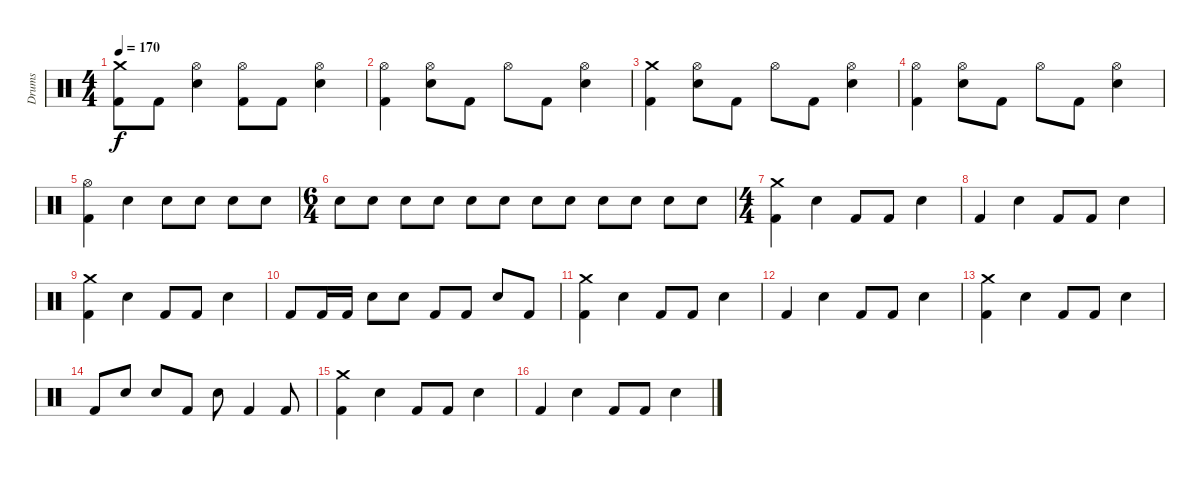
\track ("Drums" "Drums") {instrument percussion}
\staff {score}
\articulation defaults
\ts (4 4)
\tempo 170
\clef neutral
\ks c
("Crash medium (hit)" "Kick (hit) 2").8{dy f} "Kick (hit) 2".8 ("Snare (hit) 2" "Hi-Hat (open)").4 ("Hi-Hat (open)" "Kick (hit) 2").8 "Kick (hit) 2".8 ("Snare (hit) 2" "Hi-Hat (open)").4 |
("Hi-Hat (open)" "Kick (hit) 2").4 ("Snare (hit) 2" "Hi-Hat (open)").8 "Kick (hit) 2".8 "Hi-Hat (open)".8 "Kick (hit) 2".8 ("Snare (hit) 2" "Hi-Hat (open)").4 |
("Crash medium (hit)" "Kick (hit) 2").4 ("Snare (hit) 2" "Hi-Hat (open)").8 "Kick (hit) 2".8 "Hi-Hat (open)".8 "Kick (hit) 2".8 ("Snare (hit) 2" "Hi-Hat (open)").4 |
("Hi-Hat (open)" "Kick (hit) 2").4 ("Snare (hit) 2" "Hi-Hat (open)").8 "Kick (hit) 2".8 "Hi-Hat (open)".8 "Kick (hit) 2".8 ("Snare (hit) 2" "Hi-Hat (open)").4 |
("Hi-Hat (open)" "Kick (hit) 2").4 "Snare (hit) 2".4 "Snare (hit) 2".8 "Snare (hit) 2".8 "Snare (hit) 2".8 "Snare (hit) 2".8 |
\ts (6 4)
"Snare (hit) 2".8 "Snare (hit) 2".8 "Snare (hit) 2".8 "Snare (hit) 2".8 "Snare (hit) 2".8 "Snare (hit) 2".8 "Snare (hit) 2".8 "Snare (hit) 2".8 "Snare (hit) 2".8 "Snare (hit) 2".8 "Snare (hit) 2".8 "Snare (hit) 2".8 |
\ts (4 4)
("Crash medium (hit)" "Kick (hit) 2").4 "Snare (hit) 2".4 "Kick (hit) 2".8 "Kick (hit) 2".8 "Snare (hit) 2".4 |
"Kick (hit) 2".4 "Snare (hit) 2".4 "Kick (hit) 2".8 "Kick (hit) 2".8 "Snare (hit) 2".4 |
("Crash medium (hit)" "Kick (hit) 2").4 "Snare (hit) 2".4 "Kick (hit) 2".8 "Kick (hit) 2".8 "Snare (hit) 2".4 |
"Kick (hit) 2".8 "Kick (hit) 2".16 "Kick (hit) 2".16 "Snare (hit) 2".8 "Snare (hit) 2".8 "Kick (hit) 2".8 "Kick (hit) 2".8 "Snare (hit) 2".8 "Kick (hit) 2".8 |
("Crash medium (hit)" "Kick (hit) 2").4 "Snare (hit) 2".4 "Kick (hit) 2".8 "Kick (hit) 2".8 "Snare (hit) 2".4 |
"Kick (hit) 2".4 "Snare (hit) 2".4 "Kick (hit) 2".8 "Kick (hit) 2".8 "Snare (hit) 2".4 |
("Crash medium (hit)" "Kick (hit) 2").4 "Snare (hit) 2".4 "Kick (hit) 2".8 "Kick (hit) 2".8 "Snare (hit) 2".4 |
"Kick (hit) 2".8 "Snare (hit) 2".8 "Snare (hit) 2".8 "Kick (hit) 2".8 "Snare (hit) 2".8 "Kick (hit) 2".4 "Kick (hit) 2".8 |
("Crash medium (hit)" "Kick (hit) 2").4 "Snare (hit) 2".4 "Kick (hit) 2".8 "Kick (hit) 2".8 "Snare (hit) 2".4 |
"Kick (hit) 2".4 "Snare (hit) 2".4 "Kick (hit) 2".8 "Kick (hit) 2".8 "Snare (hit) 2".4
